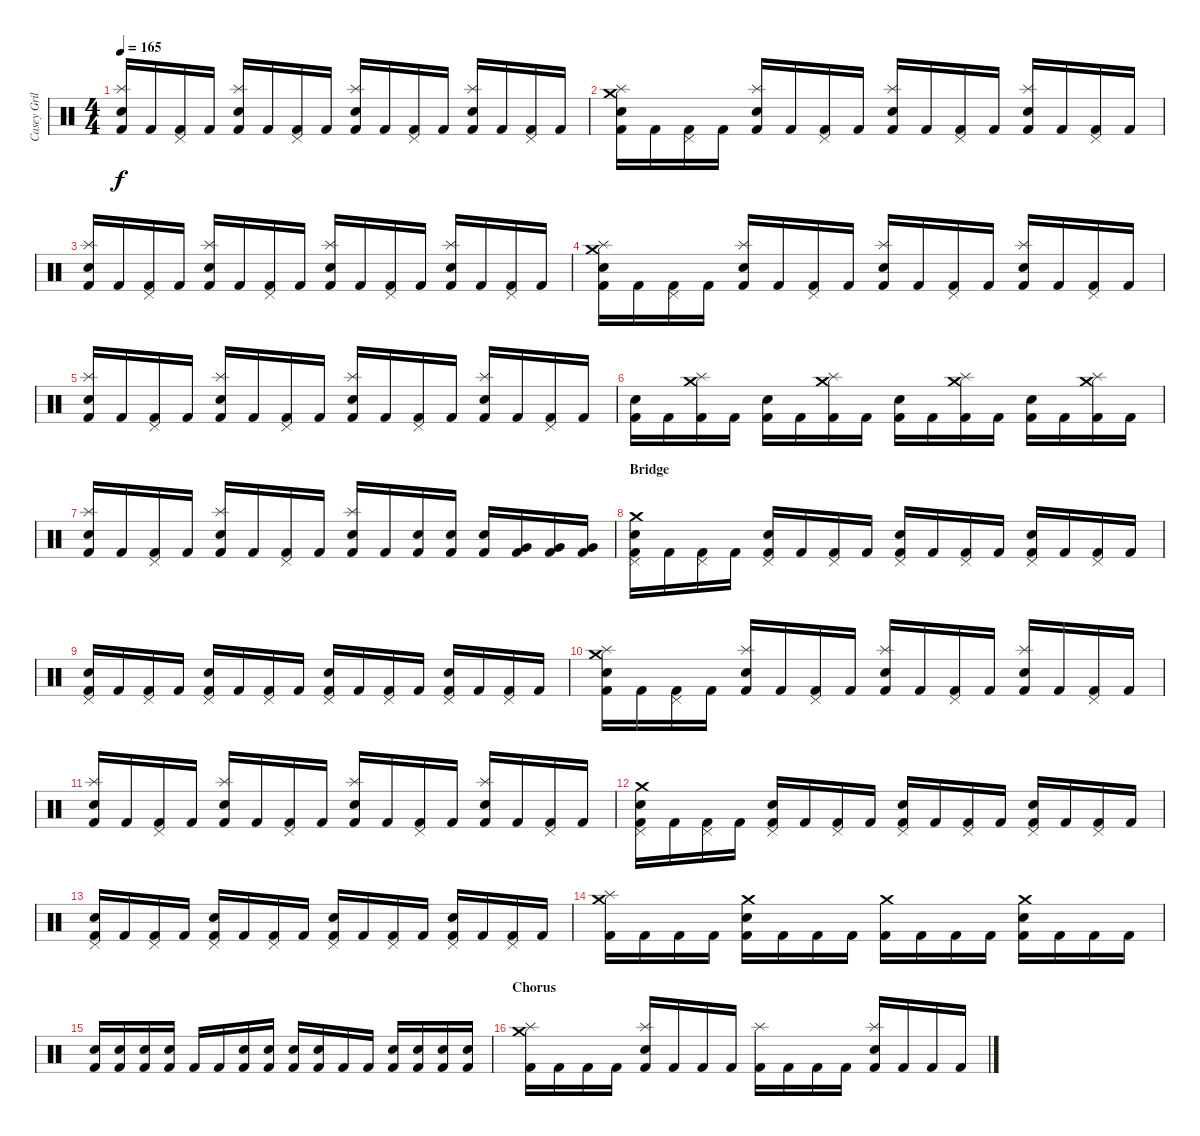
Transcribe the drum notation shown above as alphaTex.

\track ("Casey Grillo" "Casey Gril") {instrument percussion}
\staff {score}
\articulation defaults
\ts (4 4)
\tempo 165
\clef neutral
\ks c
("Electric Snare (hit)" "Splash (hit)" "Kick (hit) 2").16{dy f} "Kick (hit) 2".16 ("Pedal Hi-Hat (hit)" "Kick (hit) 2").16 "Kick (hit) 2".16 ("Electric Snare (hit)" "Splash (hit)" "Kick (hit) 2").16 "Kick (hit) 2".16 ("Pedal Hi-Hat (hit)" "Kick (hit) 2").16 "Kick (hit) 2".16 ("Electric Snare (hit)" "Splash (hit)" "Kick (hit) 2").16 "Kick (hit) 2".16 ("Pedal Hi-Hat (hit)" "Kick (hit) 2").16 "Kick (hit) 2".16 ("Electric Snare (hit)" "Splash (hit)" "Kick (hit) 2").16 "Kick (hit) 2".16 ("Pedal Hi-Hat (hit)" "Kick (hit) 2").16 "Kick (hit) 2".16 |
("Electric Snare (hit)" "Splash (hit)" "Crash medium (hit)" "Kick (hit) 2").16 "Kick (hit) 2".16 ("Pedal Hi-Hat (hit)" "Kick (hit) 2").16 "Kick (hit) 2".16 ("Electric Snare (hit)" "Splash (hit)" "Kick (hit) 2").16 "Kick (hit) 2".16 ("Pedal Hi-Hat (hit)" "Kick (hit) 2").16 "Kick (hit) 2".16 ("Electric Snare (hit)" "Splash (hit)" "Kick (hit) 2").16 "Kick (hit) 2".16 ("Pedal Hi-Hat (hit)" "Kick (hit) 2").16 "Kick (hit) 2".16 ("Electric Snare (hit)" "Splash (hit)" "Kick (hit) 2").16 "Kick (hit) 2".16 ("Pedal Hi-Hat (hit)" "Kick (hit) 2").16 "Kick (hit) 2".16 |
("Electric Snare (hit)" "Splash (hit)" "Kick (hit) 2").16 "Kick (hit) 2".16 ("Pedal Hi-Hat (hit)" "Kick (hit) 2").16 "Kick (hit) 2".16 ("Electric Snare (hit)" "Splash (hit)" "Kick (hit) 2").16 "Kick (hit) 2".16 ("Pedal Hi-Hat (hit)" "Kick (hit) 2").16 "Kick (hit) 2".16 ("Electric Snare (hit)" "Splash (hit)" "Kick (hit) 2").16 "Kick (hit) 2".16 ("Pedal Hi-Hat (hit)" "Kick (hit) 2").16 "Kick (hit) 2".16 ("Electric Snare (hit)" "Splash (hit)" "Kick (hit) 2").16 "Kick (hit) 2".16 ("Pedal Hi-Hat (hit)" "Kick (hit) 2").16 "Kick (hit) 2".16 |
("Electric Snare (hit)" "Splash (hit)" "Crash medium (hit)" "Kick (hit) 2").16 "Kick (hit) 2".16 ("Pedal Hi-Hat (hit)" "Kick (hit) 2").16 "Kick (hit) 2".16 ("Electric Snare (hit)" "Splash (hit)" "Kick (hit) 2").16 "Kick (hit) 2".16 ("Pedal Hi-Hat (hit)" "Kick (hit) 2").16 "Kick (hit) 2".16 ("Electric Snare (hit)" "Splash (hit)" "Kick (hit) 2").16 "Kick (hit) 2".16 ("Pedal Hi-Hat (hit)" "Kick (hit) 2").16 "Kick (hit) 2".16 ("Electric Snare (hit)" "Splash (hit)" "Kick (hit) 2").16 "Kick (hit) 2".16 ("Pedal Hi-Hat (hit)" "Kick (hit) 2").16 "Kick (hit) 2".16 |
("Electric Snare (hit)" "Splash (hit)" "Kick (hit) 2").16 "Kick (hit) 2".16 ("Pedal Hi-Hat (hit)" "Kick (hit) 2").16 "Kick (hit) 2".16 ("Electric Snare (hit)" "Splash (hit)" "Kick (hit) 2").16 "Kick (hit) 2".16 ("Pedal Hi-Hat (hit)" "Kick (hit) 2").16 "Kick (hit) 2".16 ("Electric Snare (hit)" "Splash (hit)" "Kick (hit) 2").16 "Kick (hit) 2".16 ("Pedal Hi-Hat (hit)" "Kick (hit) 2").16 "Kick (hit) 2".16 ("Electric Snare (hit)" "Splash (hit)" "Kick (hit) 2").16 "Kick (hit) 2".16 ("Pedal Hi-Hat (hit)" "Kick (hit) 2").16 "Kick (hit) 2".16 |
("Electric Snare (hit)" "Kick (hit) 2").16 "Kick (hit) 2".16 ("Crash medium (hit)" "Splash (hit)" "Kick (hit) 2").16 "Kick (hit) 2".16 ("Electric Snare (hit)" "Kick (hit) 2").16 "Kick (hit) 2".16 ("Splash (hit)" "Crash medium (hit)" "Kick (hit) 2").16 "Kick (hit) 2".16 ("Electric Snare (hit)" "Kick (hit) 2").16 "Kick (hit) 2".16 ("Splash (hit)" "Crash medium (hit)" "Kick (hit) 2").16 "Kick (hit) 2".16 ("Electric Snare (hit)" "Kick (hit) 2").16 "Kick (hit) 2".16 ("Crash medium (hit)" "Splash (hit)" "Kick (hit) 2").16 "Kick (hit) 2".16 |
("Electric Snare (hit)" "Splash (hit)" "Kick (hit) 2").16 "Kick (hit) 2".16 ("Pedal Hi-Hat (hit)" "Kick (hit) 2").16 "Kick (hit) 2".16 ("Electric Snare (hit)" "Splash (hit)" "Kick (hit) 2").16 "Kick (hit) 2".16 ("Pedal Hi-Hat (hit)" "Kick (hit) 2").16 "Kick (hit) 2".16 ("Electric Snare (hit)" "Splash (hit)" "Kick (hit) 2").16 "Kick (hit) 2".16 ("Electric Snare (hit)" "Kick (hit) 2").16 ("Electric Snare (hit)" "Kick (hit) 2").16 ("Electric Snare (hit)" "Kick (hit) 2").16 ("Very Low Tom (hit)" "Kick (hit) 2").16 ("Very Low Tom (hit)" "Kick (hit) 2").16 ("Very Low Tom (hit)" "Kick (hit) 2").16 |
\section ("" "Bridge")
("Electric Snare (hit)" "Pedal Hi-Hat (hit)" "Crash medium (hit)" "Kick (hit) 2").16 "Kick (hit) 2".16 ("Pedal Hi-Hat (hit)" "Kick (hit) 2").16 "Kick (hit) 2".16 ("Electric Snare (hit)" "Pedal Hi-Hat (hit)" "Kick (hit) 2").16 "Kick (hit) 2".16 ("Pedal Hi-Hat (hit)" "Kick (hit) 2").16 "Kick (hit) 2".16 ("Electric Snare (hit)" "Pedal Hi-Hat (hit)" "Kick (hit) 2").16 "Kick (hit) 2".16 ("Pedal Hi-Hat (hit)" "Kick (hit) 2").16 "Kick (hit) 2".16 ("Electric Snare (hit)" "Pedal Hi-Hat (hit)" "Kick (hit) 2").16 "Kick (hit) 2".16 ("Pedal Hi-Hat (hit)" "Kick (hit) 2").16 "Kick (hit) 2".16 |
("Electric Snare (hit)" "Pedal Hi-Hat (hit)" "Kick (hit) 2").16 "Kick (hit) 2".16 ("Pedal Hi-Hat (hit)" "Kick (hit) 2").16 "Kick (hit) 2".16 ("Electric Snare (hit)" "Pedal Hi-Hat (hit)" "Kick (hit) 2").16 "Kick (hit) 2".16 ("Pedal Hi-Hat (hit)" "Kick (hit) 2").16 "Kick (hit) 2".16 ("Electric Snare (hit)" "Pedal Hi-Hat (hit)" "Kick (hit) 2").16 "Kick (hit) 2".16 ("Pedal Hi-Hat (hit)" "Kick (hit) 2").16 "Kick (hit) 2".16 ("Electric Snare (hit)" "Pedal Hi-Hat (hit)" "Kick (hit) 2").16 "Kick (hit) 2".16 ("Pedal Hi-Hat (hit)" "Kick (hit) 2").16 "Kick (hit) 2".16 |
("Electric Snare (hit)" "Splash (hit)" "Crash medium (hit)" "Kick (hit) 2").16 "Kick (hit) 2".16 ("Pedal Hi-Hat (hit)" "Kick (hit) 2").16 "Kick (hit) 2".16 ("Electric Snare (hit)" "Splash (hit)" "Kick (hit) 2").16 "Kick (hit) 2".16 ("Pedal Hi-Hat (hit)" "Kick (hit) 2").16 "Kick (hit) 2".16 ("Electric Snare (hit)" "Splash (hit)" "Kick (hit) 2").16 "Kick (hit) 2".16 ("Pedal Hi-Hat (hit)" "Kick (hit) 2").16 "Kick (hit) 2".16 ("Electric Snare (hit)" "Splash (hit)" "Kick (hit) 2").16 "Kick (hit) 2".16 ("Pedal Hi-Hat (hit)" "Kick (hit) 2").16 "Kick (hit) 2".16 |
("Electric Snare (hit)" "Splash (hit)" "Kick (hit) 2").16 "Kick (hit) 2".16 ("Pedal Hi-Hat (hit)" "Kick (hit) 2").16 "Kick (hit) 2".16 ("Electric Snare (hit)" "Splash (hit)" "Kick (hit) 2").16 "Kick (hit) 2".16 ("Pedal Hi-Hat (hit)" "Kick (hit) 2").16 "Kick (hit) 2".16 ("Electric Snare (hit)" "Splash (hit)" "Kick (hit) 2").16 "Kick (hit) 2".16 ("Pedal Hi-Hat (hit)" "Kick (hit) 2").16 "Kick (hit) 2".16 ("Electric Snare (hit)" "Splash (hit)" "Kick (hit) 2").16 "Kick (hit) 2".16 ("Pedal Hi-Hat (hit)" "Kick (hit) 2").16 "Kick (hit) 2".16 |
("Electric Snare (hit)" "Pedal Hi-Hat (hit)" "Crash medium (hit)" "Kick (hit) 2").16 "Kick (hit) 2".16 ("Pedal Hi-Hat (hit)" "Kick (hit) 2").16 "Kick (hit) 2".16 ("Electric Snare (hit)" "Pedal Hi-Hat (hit)" "Kick (hit) 2").16 "Kick (hit) 2".16 ("Pedal Hi-Hat (hit)" "Kick (hit) 2").16 "Kick (hit) 2".16 ("Electric Snare (hit)" "Pedal Hi-Hat (hit)" "Kick (hit) 2").16 "Kick (hit) 2".16 ("Pedal Hi-Hat (hit)" "Kick (hit) 2").16 "Kick (hit) 2".16 ("Electric Snare (hit)" "Pedal Hi-Hat (hit)" "Kick (hit) 2").16 "Kick (hit) 2".16 ("Pedal Hi-Hat (hit)" "Kick (hit) 2").16 "Kick (hit) 2".16 |
("Electric Snare (hit)" "Pedal Hi-Hat (hit)" "Kick (hit) 2").16 "Kick (hit) 2".16 ("Pedal Hi-Hat (hit)" "Kick (hit) 2").16 "Kick (hit) 2".16 ("Electric Snare (hit)" "Pedal Hi-Hat (hit)" "Kick (hit) 2").16 "Kick (hit) 2".16 ("Pedal Hi-Hat (hit)" "Kick (hit) 2").16 "Kick (hit) 2".16 ("Electric Snare (hit)" "Pedal Hi-Hat (hit)" "Kick (hit) 2").16 "Kick (hit) 2".16 ("Pedal Hi-Hat (hit)" "Kick (hit) 2").16 "Kick (hit) 2".16 ("Electric Snare (hit)" "Pedal Hi-Hat (hit)" "Kick (hit) 2").16 "Kick (hit) 2".16 ("Pedal Hi-Hat (hit)" "Kick (hit) 2").16 "Kick (hit) 2".16 |
("Splash (hit)" "Crash medium (hit)" "Kick (hit) 2").16 "Kick (hit) 2".16 "Kick (hit) 2".16 "Kick (hit) 2".16 ("Electric Snare (hit)" "Crash medium (hit)" "Kick (hit) 2").16 "Kick (hit) 2".16 "Kick (hit) 2".16 "Kick (hit) 2".16 ("Crash medium (hit)" "Kick (hit) 2").16 "Kick (hit) 2".16 "Kick (hit) 2".16 "Kick (hit) 2".16 ("Electric Snare (hit)" "Crash medium (hit)" "Kick (hit) 2").16 "Kick (hit) 2".16 "Kick (hit) 2".16 "Kick (hit) 2".16 |
("Electric Snare (hit)" "Kick (hit) 2").16 ("Electric Snare (hit)" "Kick (hit) 2").16 ("Electric Snare (hit)" "Kick (hit) 2").16 ("Electric Snare (hit)" "Kick (hit) 2").16 "Kick (hit) 2".16 "Kick (hit) 2".16 ("Electric Snare (hit)" "Kick (hit) 2").16 ("Electric Snare (hit)" "Kick (hit) 2").16 ("Electric Snare (hit)" "Kick (hit) 2").16 ("Electric Snare (hit)" "Kick (hit) 2").16 "Kick (hit) 2".16 "Kick (hit) 2".16 ("Electric Snare (hit)" "Kick (hit) 2").16 ("Electric Snare (hit)" "Kick (hit) 2").16 ("Electric Snare (hit)" "Kick (hit) 2").16 ("Electric Snare (hit)" "Kick (hit) 2").16 |
\section ("" "Chorus")
("Splash (hit)" "Crash medium (hit)" "Kick (hit) 2").16 "Kick (hit) 2".16 "Kick (hit) 2".16 "Kick (hit) 2".16 ("Electric Snare (hit)" "Splash (hit)" "Kick (hit) 2").16 "Kick (hit) 2".16 "Kick (hit) 2".16 "Kick (hit) 2".16 ("Splash (hit)" "Kick (hit) 2").16 "Kick (hit) 2".16 "Kick (hit) 2".16 "Kick (hit) 2".16 ("Electric Snare (hit)" "Splash (hit)" "Kick (hit) 2").16 "Kick (hit) 2".16 "Kick (hit) 2".16 "Kick (hit) 2".16
